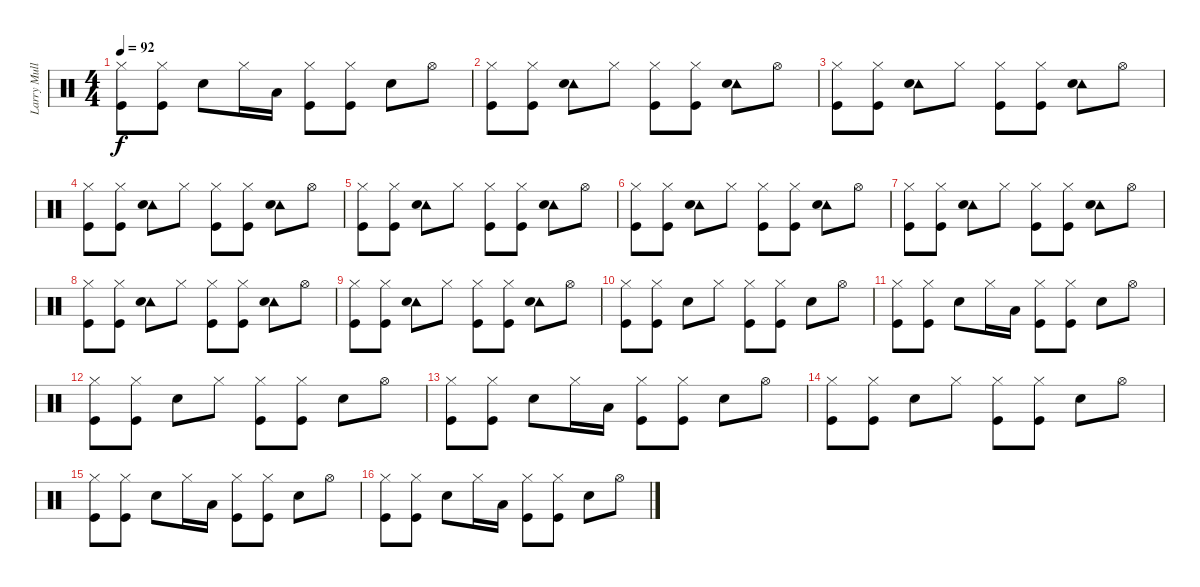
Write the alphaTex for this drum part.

\track ("Larry Mullen Junior" "Larry Mull") {instrument percussion}
\staff {score}
\articulation defaults
\ts (4 4)
\tempo 92
\clef neutral
\ks c
("Hi-Hat (closed)" "Kick (hit)").8{dy f} ("Hi-Hat (closed)" "Kick (hit)").8 "Electric Snare (hit)".8 "Hi-Hat (closed)".16 "Low Floor Tom (hit)".16 ("Hi-Hat (closed)" "Kick (hit)").8 ("Hi-Hat (closed)" "Kick (hit)").8 "Electric Snare (hit)".8 "Hi-Hat (open)".8 |
("Hi-Hat (closed)" "Kick (hit)").8 ("Hi-Hat (closed)" "Kick (hit)").8 ("Tambourine (hit)" "Electric Snare (hit)").8 "Hi-Hat (closed)".8 ("Hi-Hat (closed)" "Kick (hit)").8 ("Hi-Hat (closed)" "Kick (hit)").8 ("Tambourine (hit)" "Electric Snare (hit)").8 "Hi-Hat (open)".8 |
("Hi-Hat (closed)" "Kick (hit)").8 ("Hi-Hat (closed)" "Kick (hit)").8 ("Tambourine (hit)" "Electric Snare (hit)").8 "Hi-Hat (closed)".8 ("Hi-Hat (closed)" "Kick (hit)").8 ("Hi-Hat (closed)" "Kick (hit)").8 ("Tambourine (hit)" "Electric Snare (hit)").8 "Hi-Hat (open)".8 |
("Hi-Hat (closed)" "Kick (hit)").8 ("Hi-Hat (closed)" "Kick (hit)").8 ("Tambourine (hit)" "Electric Snare (hit)").8 "Hi-Hat (closed)".8 ("Hi-Hat (closed)" "Kick (hit)").8 ("Hi-Hat (closed)" "Kick (hit)").8 ("Tambourine (hit)" "Electric Snare (hit)").8 "Hi-Hat (open)".8 |
("Hi-Hat (closed)" "Kick (hit)").8 ("Hi-Hat (closed)" "Kick (hit)").8 ("Tambourine (hit)" "Electric Snare (hit)").8 "Hi-Hat (closed)".8 ("Hi-Hat (closed)" "Kick (hit)").8 ("Hi-Hat (closed)" "Kick (hit)").8 ("Tambourine (hit)" "Electric Snare (hit)").8 "Hi-Hat (open)".8 |
("Hi-Hat (closed)" "Kick (hit)").8 ("Hi-Hat (closed)" "Kick (hit)").8 ("Tambourine (hit)" "Electric Snare (hit)").8 "Hi-Hat (closed)".8 ("Hi-Hat (closed)" "Kick (hit)").8 ("Hi-Hat (closed)" "Kick (hit)").8 ("Tambourine (hit)" "Electric Snare (hit)").8 "Hi-Hat (open)".8 |
("Hi-Hat (closed)" "Kick (hit)").8 ("Hi-Hat (closed)" "Kick (hit)").8 ("Tambourine (hit)" "Electric Snare (hit)").8 "Hi-Hat (closed)".8 ("Hi-Hat (closed)" "Kick (hit)").8 ("Hi-Hat (closed)" "Kick (hit)").8 ("Tambourine (hit)" "Electric Snare (hit)").8 "Hi-Hat (open)".8 |
("Hi-Hat (closed)" "Kick (hit)").8 ("Hi-Hat (closed)" "Kick (hit)").8 ("Tambourine (hit)" "Electric Snare (hit)").8 "Hi-Hat (closed)".8 ("Hi-Hat (closed)" "Kick (hit)").8 ("Hi-Hat (closed)" "Kick (hit)").8 ("Tambourine (hit)" "Electric Snare (hit)").8 "Hi-Hat (open)".8 |
("Hi-Hat (closed)" "Kick (hit)").8 ("Hi-Hat (closed)" "Kick (hit)").8 ("Tambourine (hit)" "Electric Snare (hit)").8 "Hi-Hat (closed)".8 ("Hi-Hat (closed)" "Kick (hit)").8 ("Hi-Hat (closed)" "Kick (hit)").8 ("Tambourine (hit)" "Electric Snare (hit)").8 "Hi-Hat (open)".8 |
("Hi-Hat (closed)" "Kick (hit)").8 ("Hi-Hat (closed)" "Kick (hit)").8 "Electric Snare (hit)".8 "Hi-Hat (closed)".8 ("Hi-Hat (closed)" "Kick (hit)").8 ("Hi-Hat (closed)" "Kick (hit)").8 "Electric Snare (hit)".8 "Hi-Hat (open)".8 |
("Hi-Hat (closed)" "Kick (hit)").8 ("Hi-Hat (closed)" "Kick (hit)").8 "Electric Snare (hit)".8 "Hi-Hat (closed)".16 "Low Floor Tom (hit)".16 ("Hi-Hat (closed)" "Kick (hit)").8 ("Hi-Hat (closed)" "Kick (hit)").8 "Electric Snare (hit)".8 "Hi-Hat (open)".8 |
("Hi-Hat (closed)" "Kick (hit)").8 ("Hi-Hat (closed)" "Kick (hit)").8 "Electric Snare (hit)".8 "Hi-Hat (closed)".8 ("Hi-Hat (closed)" "Kick (hit)").8 ("Hi-Hat (closed)" "Kick (hit)").8 "Electric Snare (hit)".8 "Hi-Hat (open)".8 |
("Hi-Hat (closed)" "Kick (hit)").8 ("Hi-Hat (closed)" "Kick (hit)").8 "Electric Snare (hit)".8 "Hi-Hat (closed)".16 "Low Floor Tom (hit)".16 ("Hi-Hat (closed)" "Kick (hit)").8 ("Hi-Hat (closed)" "Kick (hit)").8 "Electric Snare (hit)".8 "Hi-Hat (open)".8 |
("Hi-Hat (closed)" "Kick (hit)").8 ("Hi-Hat (closed)" "Kick (hit)").8 "Electric Snare (hit)".8 "Hi-Hat (closed)".8 ("Hi-Hat (closed)" "Kick (hit)").8 ("Hi-Hat (closed)" "Kick (hit)").8 "Electric Snare (hit)".8 "Hi-Hat (open)".8 |
("Hi-Hat (closed)" "Kick (hit)").8 ("Hi-Hat (closed)" "Kick (hit)").8 "Electric Snare (hit)".8 "Hi-Hat (closed)".16 "Low Floor Tom (hit)".16 ("Hi-Hat (closed)" "Kick (hit)").8 ("Hi-Hat (closed)" "Kick (hit)").8 "Electric Snare (hit)".8 "Hi-Hat (open)".8 |
("Hi-Hat (closed)" "Kick (hit)").8 ("Hi-Hat (closed)" "Kick (hit)").8 "Electric Snare (hit)".8 "Hi-Hat (closed)".16 "Low Floor Tom (hit)".16 ("Hi-Hat (closed)" "Kick (hit)").8 ("Hi-Hat (closed)" "Kick (hit)").8 "Electric Snare (hit)".8 "Hi-Hat (open)".8
